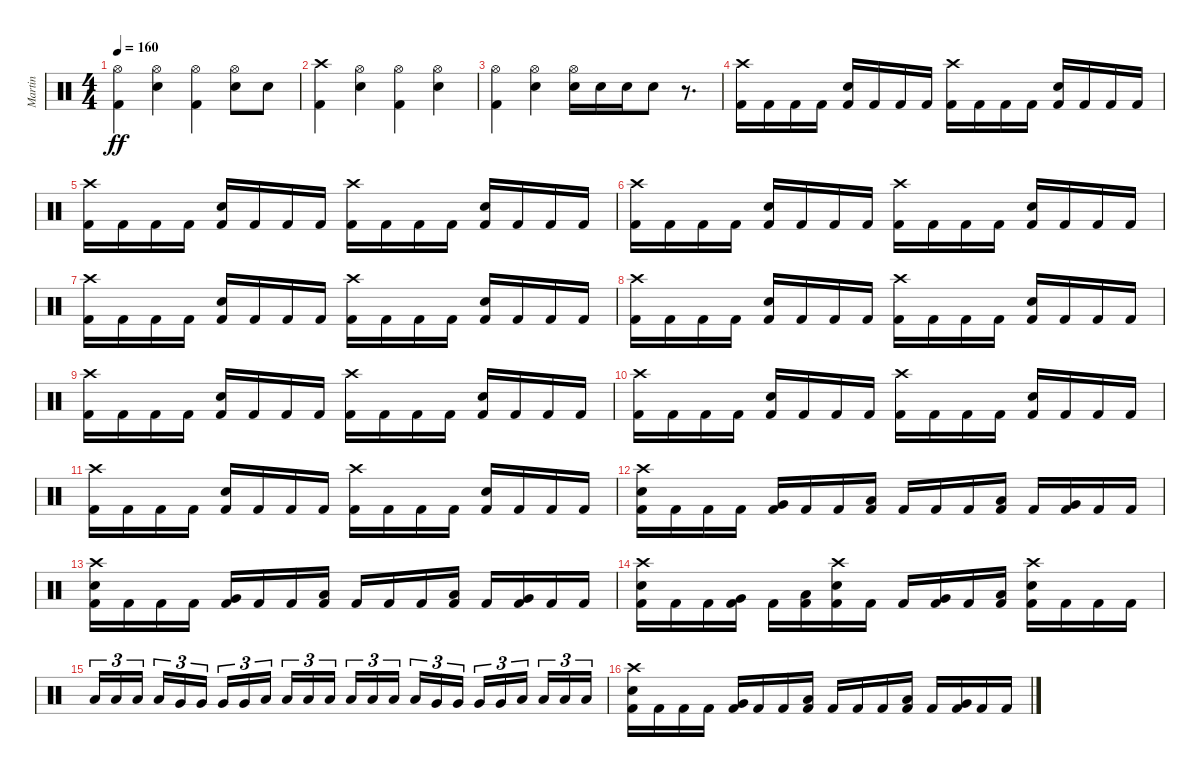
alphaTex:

\track ("Martin" "Martin") {instrument percussion}
\staff {score}
\articulation defaults
\ts (4 4)
\tempo 160
\clef neutral
\ks c
("Hi-Hat (open)" "Kick (hit) 2").4{dy ff} ("Hi-Hat (open)" "Electric Snare (hit)").4 ("Hi-Hat (open)" "Kick (hit) 2").4 ("Hi-Hat (open)" "Electric Snare (hit)").8 "Electric Snare (hit)".8 |
("Crash high (hit)" "Kick (hit) 2").4 ("Hi-Hat (open)" "Electric Snare (hit)").4 ("Hi-Hat (open)" "Kick (hit) 2").4 ("Hi-Hat (open)" "Electric Snare (hit)").4 |
("Hi-Hat (open)" "Kick (hit) 2").4 ("Hi-Hat (open)" "Electric Snare (hit)").4 ("Hi-Hat (open)" "Electric Snare (hit)").16 "Electric Snare (hit)".16 "Electric Snare (hit)".16 "Electric Snare (hit)".8 r.8{d} |
("Crash high (hit)" "Kick (hit) 2").16 "Kick (hit) 2".16 "Kick (hit) 2".16 "Kick (hit) 2".16 ("Electric Snare (hit)" "Kick (hit) 2").16 "Kick (hit) 2".16 "Kick (hit) 2".16 "Kick (hit) 2".16 ("Crash high (hit)" "Kick (hit) 2").16 "Kick (hit) 2".16 "Kick (hit) 2".16 "Kick (hit) 2".16 ("Electric Snare (hit)" "Kick (hit) 2").16 "Kick (hit) 2".16 "Kick (hit) 2".16 "Kick (hit) 2".16 |
("Crash high (hit)" "Kick (hit) 2").16 "Kick (hit) 2".16 "Kick (hit) 2".16 "Kick (hit) 2".16 ("Electric Snare (hit)" "Kick (hit) 2").16 "Kick (hit) 2".16 "Kick (hit) 2".16 "Kick (hit) 2".16 ("Crash high (hit)" "Kick (hit) 2").16 "Kick (hit) 2".16 "Kick (hit) 2".16 "Kick (hit) 2".16 ("Electric Snare (hit)" "Kick (hit) 2").16 "Kick (hit) 2".16 "Kick (hit) 2".16 "Kick (hit) 2".16 |
("Crash high (hit)" "Kick (hit) 2").16 "Kick (hit) 2".16 "Kick (hit) 2".16 "Kick (hit) 2".16 ("Electric Snare (hit)" "Kick (hit) 2").16 "Kick (hit) 2".16 "Kick (hit) 2".16 "Kick (hit) 2".16 ("Crash high (hit)" "Kick (hit) 2").16 "Kick (hit) 2".16 "Kick (hit) 2".16 "Kick (hit) 2".16 ("Electric Snare (hit)" "Kick (hit) 2").16 "Kick (hit) 2".16 "Kick (hit) 2".16 "Kick (hit) 2".16 |
("Crash high (hit)" "Kick (hit) 2").16 "Kick (hit) 2".16 "Kick (hit) 2".16 "Kick (hit) 2".16 ("Electric Snare (hit)" "Kick (hit) 2").16 "Kick (hit) 2".16 "Kick (hit) 2".16 "Kick (hit) 2".16 ("Crash high (hit)" "Kick (hit) 2").16 "Kick (hit) 2".16 "Kick (hit) 2".16 "Kick (hit) 2".16 ("Electric Snare (hit)" "Kick (hit) 2").16 "Kick (hit) 2".16 "Kick (hit) 2".16 "Kick (hit) 2".16 |
("Crash high (hit)" "Kick (hit) 2").16 "Kick (hit) 2".16 "Kick (hit) 2".16 "Kick (hit) 2".16 ("Electric Snare (hit)" "Kick (hit) 2").16 "Kick (hit) 2".16 "Kick (hit) 2".16 "Kick (hit) 2".16 ("Crash high (hit)" "Kick (hit) 2").16 "Kick (hit) 2".16 "Kick (hit) 2".16 "Kick (hit) 2".16 ("Electric Snare (hit)" "Kick (hit) 2").16 "Kick (hit) 2".16 "Kick (hit) 2".16 "Kick (hit) 2".16 |
("Crash high (hit)" "Kick (hit) 2").16 "Kick (hit) 2".16 "Kick (hit) 2".16 "Kick (hit) 2".16 ("Electric Snare (hit)" "Kick (hit) 2").16 "Kick (hit) 2".16 "Kick (hit) 2".16 "Kick (hit) 2".16 ("Crash high (hit)" "Kick (hit) 2").16 "Kick (hit) 2".16 "Kick (hit) 2".16 "Kick (hit) 2".16 ("Electric Snare (hit)" "Kick (hit) 2").16 "Kick (hit) 2".16 "Kick (hit) 2".16 "Kick (hit) 2".16 |
("Crash high (hit)" "Kick (hit) 2").16 "Kick (hit) 2".16 "Kick (hit) 2".16 "Kick (hit) 2".16 ("Electric Snare (hit)" "Kick (hit) 2").16 "Kick (hit) 2".16 "Kick (hit) 2".16 "Kick (hit) 2".16 ("Crash high (hit)" "Kick (hit) 2").16 "Kick (hit) 2".16 "Kick (hit) 2".16 "Kick (hit) 2".16 ("Electric Snare (hit)" "Kick (hit) 2").16 "Kick (hit) 2".16 "Kick (hit) 2".16 "Kick (hit) 2".16 |
("Crash high (hit)" "Kick (hit) 2").16 "Kick (hit) 2".16 "Kick (hit) 2".16 "Kick (hit) 2".16 ("Electric Snare (hit)" "Kick (hit) 2").16 "Kick (hit) 2".16 "Kick (hit) 2".16 "Kick (hit) 2".16 ("Crash high (hit)" "Kick (hit) 2").16 "Kick (hit) 2".16 "Kick (hit) 2".16 "Kick (hit) 2".16 ("Electric Snare (hit)" "Kick (hit) 2").16 "Kick (hit) 2".16 "Kick (hit) 2".16 "Kick (hit) 2".16 |
("Crash high (hit)" "Electric Snare (hit)" "Kick (hit) 2").16 "Kick (hit) 2".16 "Kick (hit) 2".16 "Kick (hit) 2".16 ("Very Low Tom (hit)" "Kick (hit) 2").16 "Kick (hit) 2".16 "Kick (hit) 2".16 ("Low Tom (hit)" "Kick (hit) 2").16 "Kick (hit) 2".16 "Kick (hit) 2".16 "Kick (hit) 2".16 ("Low Floor Tom (hit)" "Kick (hit) 2").16 "Kick (hit) 2".16 ("Very Low Tom (hit)" "Kick (hit) 2").16 "Kick (hit) 2".16 "Kick (hit) 2".16 |
("Crash high (hit)" "Electric Snare (hit)" "Kick (hit) 2").16 "Kick (hit) 2".16 "Kick (hit) 2".16 "Kick (hit) 2".16 ("Very Low Tom (hit)" "Kick (hit) 2").16 "Kick (hit) 2".16 "Kick (hit) 2".16 ("Low Tom (hit)" "Kick (hit) 2").16 "Kick (hit) 2".16 "Kick (hit) 2".16 "Kick (hit) 2".16 ("Low Floor Tom (hit)" "Kick (hit) 2").16 "Kick (hit) 2".16 ("Very Low Tom (hit)" "Kick (hit) 2").16 "Kick (hit) 2".16 "Kick (hit) 2".16 |
("Crash high (hit)" "Electric Snare (hit)" "Kick (hit) 2").16 "Kick (hit) 2".16 "Kick (hit) 2".16 ("Very Low Tom (hit)" "Kick (hit) 2").16 "Kick (hit) 2".16 ("Low Floor Tom (hit)" "Kick (hit) 2").16 ("Crash high (hit)" "Electric Snare (hit)" "Kick (hit) 2").16 "Kick (hit) 2".16 "Kick (hit) 2".16 ("Very Low Tom (hit)" "Kick (hit) 2").16 "Kick (hit) 2".16 ("Low Floor Tom (hit)" "Kick (hit) 2").16 ("Crash high (hit)" "Electric Snare (hit)" "Kick (hit) 2").16 "Kick (hit) 2".16 "Kick (hit) 2".16 "Kick (hit) 2".16 |
"Low Tom (hit)".16{tu (3 2)} "Low Tom (hit)".16{tu (3 2)} "Low Tom (hit)".16{tu (3 2) beam splitsecondary} "Low Tom (hit)".16{tu (3 2)} "Very Low Tom (hit)".16{tu (3 2)} "Very Low Tom (hit)".16{tu (3 2)} "Very Low Tom (hit)".16{tu (3 2)} "Very Low Tom (hit)".16{tu (3 2)} "Low Floor Tom (hit)".16{tu (3 2) beam splitsecondary} "Low Floor Tom (hit)".16{tu (3 2)} "Low Floor Tom (hit)".16{tu (3 2)} "Low Floor Tom (hit)".16{tu (3 2)} "Low Tom (hit)".16{tu (3 2)} "Low Tom (hit)".16{tu (3 2)} "Low Tom (hit)".16{tu (3 2) beam splitsecondary} "Low Tom (hit)".16{tu (3 2)} "Very Low Tom (hit)".16{tu (3 2)} "Very Low Tom (hit)".16{tu (3 2)} "Very Low Tom (hit)".16{tu (3 2)} "Very Low Tom (hit)".16{tu (3 2)} "Low Floor Tom (hit)".16{tu (3 2) beam splitsecondary} "Low Floor Tom (hit)".16{tu (3 2)} "Low Floor Tom (hit)".16{tu (3 2)} "Low Floor Tom (hit)".16{tu (3 2)} |
("Crash high (hit)" "Electric Snare (hit)" "Kick (hit) 2").16 "Kick (hit) 2".16 "Kick (hit) 2".16 "Kick (hit) 2".16 ("Very Low Tom (hit)" "Kick (hit) 2").16 "Kick (hit) 2".16 "Kick (hit) 2".16 ("Low Tom (hit)" "Kick (hit) 2").16 "Kick (hit) 2".16 "Kick (hit) 2".16 "Kick (hit) 2".16 ("Low Floor Tom (hit)" "Kick (hit) 2").16 "Kick (hit) 2".16 ("Very Low Tom (hit)" "Kick (hit) 2").16 "Kick (hit) 2".16 "Kick (hit) 2".16
